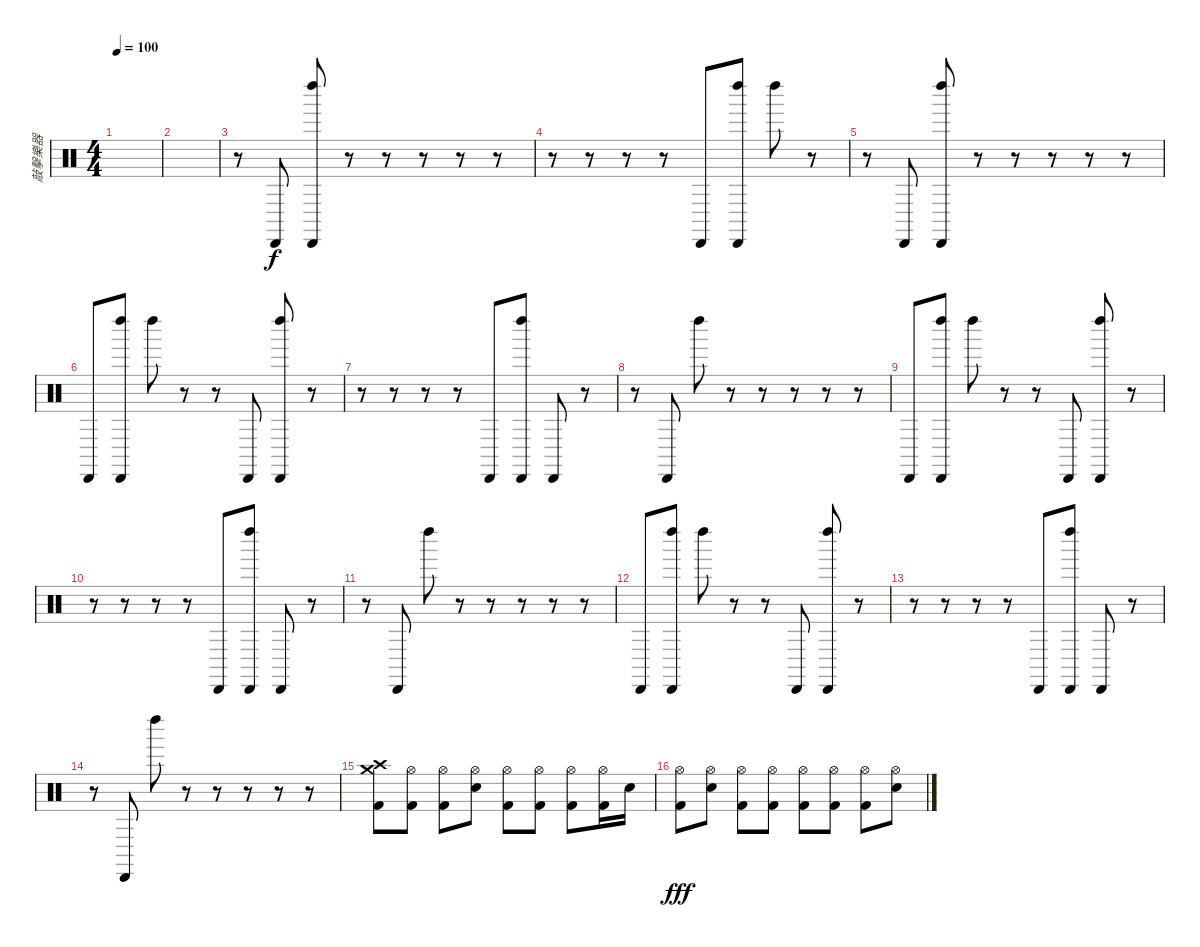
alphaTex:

\track ("敲擊樂器" "敲擊樂器") {instrument percussion}
\staff {score}
\articulation defaults
\ts (4 4)
\tempo 100
\clef neutral
\ks c
|
|
r.8 "Cabasa (hit)".8 ("Left Maraca (hit)" "Cabasa (hit)").8 r.8 r.8 r.8 r.8 r.8 |
r.8 r.8 r.8 r.8 "Cabasa (hit)".8 ("Cabasa (hit)" "Left Maraca (hit)").8 "Left Maraca (hit)".8 r.8 |
r.8 "Cabasa (hit)".8 ("Left Maraca (hit)" "Cabasa (hit)").8 r.8 r.8 r.8 r.8 r.8 |
"Cabasa (hit)".8 ("Cabasa (hit)" "Left Maraca (hit)").8 "Left Maraca (hit)".8 r.8 r.8 "Cabasa (hit)".8 ("Cabasa (hit)" "Left Maraca (hit)").8 r.8 |
r.8 r.8 r.8 r.8 "Cabasa (hit)".8 ("Left Maraca (hit)" "Cabasa (hit)").8 "Cabasa (hit)".8 r.8 |
r.8 "Cabasa (hit)".8 "Left Maraca (hit)".8 r.8 r.8 r.8 r.8 r.8 |
"Cabasa (hit)".8 ("Cabasa (hit)" "Left Maraca (hit)").8 "Left Maraca (hit)".8 r.8 r.8 "Cabasa (hit)".8 ("Cabasa (hit)" "Left Maraca (hit)").8 r.8 |
r.8 r.8 r.8 r.8 "Cabasa (hit)".8 ("Left Maraca (hit)" "Cabasa (hit)").8 "Cabasa (hit)".8 r.8 |
r.8 "Cabasa (hit)".8 "Left Maraca (hit)".8 r.8 r.8 r.8 r.8 r.8 |
"Cabasa (hit)".8 ("Cabasa (hit)" "Left Maraca (hit)").8 "Left Maraca (hit)".8 r.8 r.8 "Cabasa (hit)".8 ("Cabasa (hit)" "Left Maraca (hit)").8 r.8 |
r.8 r.8 r.8 r.8 "Cabasa (hit)".8 ("Left Maraca (hit)" "Cabasa (hit)").8 "Cabasa (hit)".8 r.8 |
r.8 "Cabasa (hit)".8 "Left Maraca (hit)".8 r.8 r.8 r.8 r.8 r.8 |
("Crash high (hit)" "Crash medium (hit)" "Kick (hit) 2").8 ("Hi-Hat (open)" "Kick (hit) 2").8 ("Hi-Hat (open)" "Kick (hit) 2").8 ("Hi-Hat (open)" "Electric Snare (hit)").8 ("Hi-Hat (open)" "Kick (hit) 2").8 ("Hi-Hat (open)" "Kick (hit) 2").8 ("Hi-Hat (open)" "Kick (hit) 2").8 ("Hi-Hat (open)" "Kick (hit) 2").16 "Electric Snare (hit)".16{dy f} |
("Hi-Hat (open)" "Kick (hit) 2").8{dy fff} ("Hi-Hat (open)" "Electric Snare (hit)").8 ("Hi-Hat (open)" "Kick (hit) 2").8 ("Hi-Hat (open)" "Kick (hit) 2").8 ("Hi-Hat (open)" "Kick (hit) 2").8 ("Hi-Hat (open)" "Kick (hit) 2").8 ("Hi-Hat (open)" "Kick (hit) 2").8 ("Hi-Hat (open)" "Electric Snare (hit)").8
